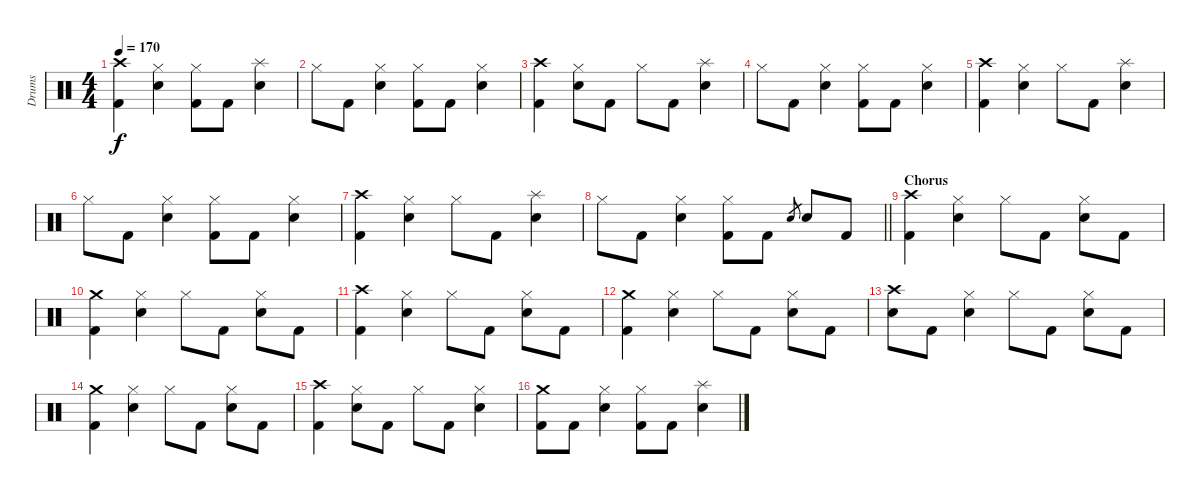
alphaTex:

\track ("Drums" "Drums") {instrument percussion}
\staff {score}
\articulation defaults
\ts (4 4)
\tempo 170
\clef neutral
\ks c
("Kick (hit) 2" "Crash high (hit)").4{dy f} ("Hi-Hat (closed)" "Electric Snare (hit)").4 ("Kick (hit) 2" "Hi-Hat (closed)").8 "Kick (hit) 2".8 ("Splash (hit)" "Electric Snare (hit)").4 |
"Hi-Hat (closed)".8 "Kick (hit) 2".8 ("Hi-Hat (closed)" "Electric Snare (hit)").4 ("Kick (hit) 2" "Hi-Hat (closed)").8 "Kick (hit) 2".8 ("Hi-Hat (closed)" "Electric Snare (hit)").4 |
("Kick (hit) 2" "Crash high (hit)").4 ("Hi-Hat (closed)" "Electric Snare (hit)").8 "Kick (hit) 2".8 "Hi-Hat (closed)".8 "Kick (hit) 2".8 ("Splash (hit)" "Electric Snare (hit)").4 |
"Hi-Hat (closed)".8 "Kick (hit) 2".8 ("Hi-Hat (closed)" "Electric Snare (hit)").4 ("Kick (hit) 2" "Hi-Hat (closed)").8 "Kick (hit) 2".8 ("Hi-Hat (closed)" "Electric Snare (hit)").4 |
("Kick (hit) 2" "Crash high (hit)").4 ("Hi-Hat (closed)" "Electric Snare (hit)").4 "Hi-Hat (closed)".8 "Kick (hit) 2".8 ("Splash (hit)" "Electric Snare (hit)").4 |
"Hi-Hat (closed)".8 "Kick (hit) 2".8 ("Hi-Hat (closed)" "Electric Snare (hit)").4 ("Kick (hit) 2" "Hi-Hat (closed)").8 "Kick (hit) 2".8 ("Hi-Hat (closed)" "Electric Snare (hit)").4 |
("Kick (hit) 2" "Crash high (hit)").4 ("Hi-Hat (closed)" "Electric Snare (hit)").4 "Hi-Hat (closed)".8 "Kick (hit) 2".8 ("Splash (hit)" "Electric Snare (hit)").4 |
\barLineRight lightlight "Hi-Hat (closed)".8 "Kick (hit) 2".8
("Hi-Hat (closed)" "Electric Snare (hit)").4 ("Kick (hit) 2" "Hi-Hat (closed)").8 "Kick (hit) 2".8 "Electric Snare (hit)".8{gr} "Electric Snare (hit)".8 "Kick (hit) 2".8 |
\section ("" "Chorus")
("Kick (hit) 2" "Crash high (hit)").4 ("Hi-Hat (closed)" "Electric Snare (hit)").4 "Hi-Hat (closed)".8 "Kick (hit) 2".8 ("Hi-Hat (closed)" "Electric Snare (hit)").8 "Kick (hit) 2".8 |
("Kick (hit) 2" "Crash medium (hit)").4 ("Hi-Hat (closed)" "Electric Snare (hit)").4 "Hi-Hat (closed)".8 "Kick (hit) 2".8 ("Hi-Hat (closed)" "Electric Snare (hit)").8 "Kick (hit) 2".8 |
("Kick (hit) 2" "Crash high (hit)").4 ("Hi-Hat (closed)" "Electric Snare (hit)").4 "Hi-Hat (closed)".8 "Kick (hit) 2".8 ("Hi-Hat (closed)" "Electric Snare (hit)").8 "Kick (hit) 2".8 |
("Kick (hit) 2" "Crash medium (hit)").4 ("Hi-Hat (closed)" "Electric Snare (hit)").4 "Hi-Hat (closed)".8 "Kick (hit) 2".8 ("Hi-Hat (closed)" "Electric Snare (hit)").8 "Kick (hit) 2".8 |
("Crash high (hit)" "Electric Snare (hit)").8 "Kick (hit) 2".8 ("Hi-Hat (closed)" "Electric Snare (hit)").4 "Hi-Hat (closed)".8 "Kick (hit) 2".8 ("Hi-Hat (closed)" "Electric Snare (hit)").8 "Kick (hit) 2".8 |
("Kick (hit) 2" "Crash medium (hit)").4 ("Hi-Hat (closed)" "Electric Snare (hit)").4 "Hi-Hat (closed)".8 "Kick (hit) 2".8 ("Hi-Hat (closed)" "Electric Snare (hit)").8 "Kick (hit) 2".8 |
("Kick (hit) 2" "Crash high (hit)").4 ("Hi-Hat (closed)" "Electric Snare (hit)").8 "Kick (hit) 2".8 "Hi-Hat (closed)".8 "Kick (hit) 2".8 ("Hi-Hat (closed)" "Electric Snare (hit)").4 |
("Kick (hit) 2" "Crash medium (hit)").8 "Kick (hit) 2".8 ("Hi-Hat (closed)" "Electric Snare (hit)").4 ("Kick (hit) 2" "Hi-Hat (closed)").8 "Kick (hit) 2".8 ("Splash (hit)" "Electric Snare (hit)").4
